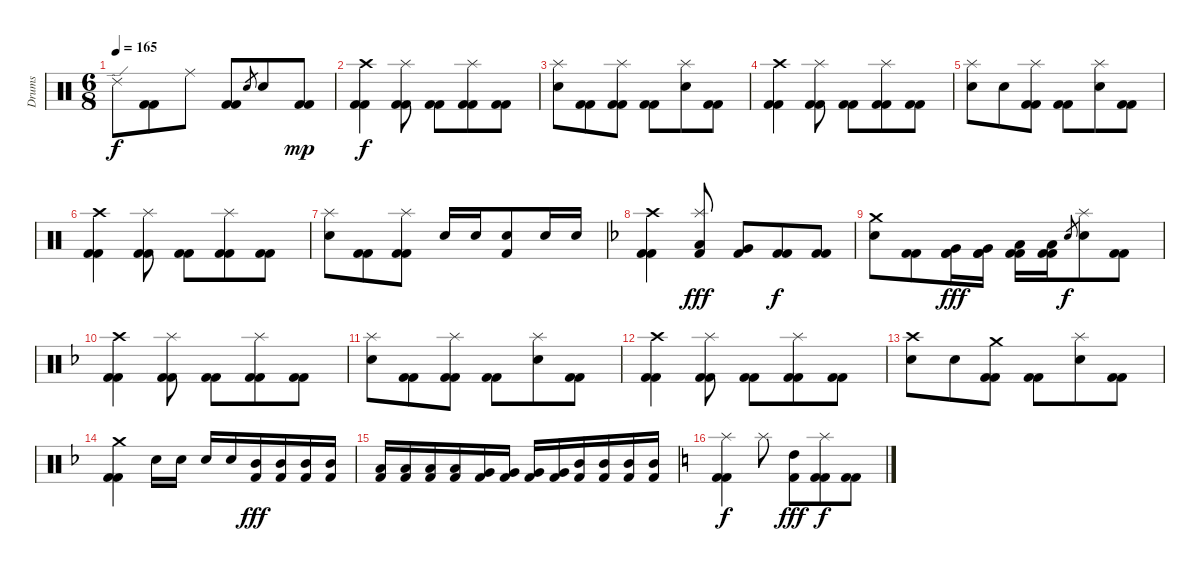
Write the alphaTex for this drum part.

\track ("Drums" "Drums") {instrument percussion}
\staff {score}
\articulation defaults
\ts (6 8)
\tempo 165
\clef neutral
\ks c "Ride (edge) 2".8{dy f}
("Kick (hit) 2" "Kick (hit) 2").8 "Ride (middle)".8 ("Kick (hit) 2" "Kick (hit) 2").8 "Electric Snare (hit)".8{gr} "Electric Snare (hit)".8 ("Kick (hit) 2" "Kick (hit) 2").8{dy mp} |
("Crash high (hit)" "Kick (hit) 2" "Kick (hit) 2").4{dy f} ("Splash (hit)" "Kick (hit) 2" "Kick (hit) 2").8 ("Kick (hit) 2" "Kick (hit) 2").8 ("Splash (hit)" "Kick (hit) 2" "Kick (hit) 2").8 ("Kick (hit) 2" "Kick (hit) 2").8 |
("Splash (hit)" "Electric Snare (hit)").8 ("Kick (hit) 2" "Kick (hit) 2").8 ("Splash (hit)" "Kick (hit) 2" "Kick (hit) 2").8 ("Kick (hit) 2" "Kick (hit) 2").8 ("Splash (hit)" "Electric Snare (hit)").8 ("Kick (hit) 2" "Kick (hit) 2").8 |
("Crash high (hit)" "Kick (hit) 2" "Kick (hit) 2").4 ("Splash (hit)" "Kick (hit) 2" "Kick (hit) 2").8 ("Kick (hit) 2" "Kick (hit) 2").8 ("Splash (hit)" "Kick (hit) 2" "Kick (hit) 2").8 ("Kick (hit) 2" "Kick (hit) 2").8 |
("Splash (hit)" "Electric Snare (hit)").8 "Electric Snare (hit)".8 ("Splash (hit)" "Kick (hit) 2" "Kick (hit) 2").8 ("Kick (hit) 2" "Kick (hit) 2").8 ("Splash (hit)" "Electric Snare (hit)").8 ("Kick (hit) 2" "Kick (hit) 2").8 |
("Crash high (hit)" "Kick (hit) 2" "Kick (hit) 2").4 ("Splash (hit)" "Kick (hit) 2" "Kick (hit) 2").8 ("Kick (hit) 2" "Kick (hit) 2").8 ("Splash (hit)" "Kick (hit) 2" "Kick (hit) 2").8 ("Kick (hit) 2" "Kick (hit) 2").8 |
("Splash (hit)" "Electric Snare (hit)").8 ("Kick (hit) 2" "Kick (hit) 2").8 ("Splash (hit)" "Kick (hit) 2" "Kick (hit) 2").8 "Electric Snare (hit)".16 "Electric Snare (hit)".16 ("Electric Snare (hit)" "Kick (hit) 2").8 "Electric Snare (hit)".16 "Electric Snare (hit)".16 |
\ks dminor
("Crash high (hit)" "Kick (hit) 2" "Kick (hit) 2").4 ("Splash (hit)" "Low Tom (hit)" "Kick (hit) 2").8{dy fff} ("Very Low Tom (hit)" "Kick (hit) 2").8 ("Kick (hit) 2" "Kick (hit) 2").8{dy f} ("Kick (hit) 2" "Kick (hit) 2").8 |
("Crash medium (hit)" "Electric Snare (hit)").8 ("Kick (hit) 2" "Kick (hit) 2").8 ("Very Low Tom (hit)" "Kick (hit) 2" "Kick (hit) 2").16{dy fff} ("Very Low Tom (hit)" "Kick (hit) 2" "Kick (hit) 2").16 ("Low Floor Tom (hit)" "Kick (hit) 2" "Kick (hit) 2").16 ("Low Floor Tom (hit)" "Kick (hit) 2" "Kick (hit) 2").16 "Electric Snare (hit)".8{gr dy f} ("Splash (hit)" "Electric Snare (hit)").8 ("Kick (hit) 2" "Kick (hit) 2").8 |
("Crash high (hit)" "Kick (hit) 2" "Kick (hit) 2").4 ("Splash (hit)" "Kick (hit) 2" "Kick (hit) 2").8 ("Kick (hit) 2" "Kick (hit) 2").8 ("Splash (hit)" "Kick (hit) 2" "Kick (hit) 2").8 ("Kick (hit) 2" "Kick (hit) 2").8 |
("Splash (hit)" "Electric Snare (hit)").8 ("Kick (hit) 2" "Kick (hit) 2").8 ("Splash (hit)" "Kick (hit) 2" "Kick (hit) 2").8 ("Kick (hit) 2" "Kick (hit) 2").8 ("Splash (hit)" "Electric Snare (hit)").8 ("Kick (hit) 2" "Kick (hit) 2").8 |
("Crash high (hit)" "Kick (hit) 2" "Kick (hit) 2").4 ("Splash (hit)" "Kick (hit) 2" "Kick (hit) 2").8 ("Kick (hit) 2" "Kick (hit) 2").8 ("Splash (hit)" "Kick (hit) 2" "Kick (hit) 2").8 ("Kick (hit) 2" "Kick (hit) 2").8 |
("Crash high (hit)" "Electric Snare (hit)").8 "Electric Snare (hit)".8 ("Crash medium (hit)" "Kick (hit) 2" "Kick (hit) 2").8 ("Kick (hit) 2" "Kick (hit) 2").8 ("Splash (hit)" "Electric Snare (hit)").8 ("Kick (hit) 2" "Kick (hit) 2").8 |
("Crash medium (hit)" "Kick (hit) 2" "Kick (hit) 2").4 "Electric Snare (hit)".16 "Electric Snare (hit)".16 "Electric Snare (hit)".16 "Electric Snare (hit)".16 ("Mid Tom (hit)" "Kick (hit) 2").16{dy fff} ("Mid Tom (hit)" "Kick (hit) 2").16 ("Mid Tom (hit)" "Kick (hit) 2").16 ("Mid Tom (hit)" "Kick (hit) 2").16 |
("Low Tom (hit)" "Kick (hit) 2").16 ("Low Tom (hit)" "Kick (hit) 2").16 ("Low Tom (hit)" "Kick (hit) 2").16 ("Low Tom (hit)" "Kick (hit) 2").16 ("Very Low Tom (hit)" "Kick (hit) 2").16 ("Very Low Tom (hit)" "Kick (hit) 2").16 ("Very Low Tom (hit)" "Kick (hit) 2").16 ("Very Low Tom (hit)" "Kick (hit) 2").16 ("Mid Tom (hit)" "Kick (hit) 2").16 ("Mid Tom (hit)" "Kick (hit) 2").16 ("Mid Tom (hit)" "Kick (hit) 2").16 ("Mid Tom (hit)" "Kick (hit) 2").16 |
\ks c
("Splash (hit)" "Kick (hit) 2" "Kick (hit) 2").4{dy f} "Splash (hit)".8 ("High Tom (hit)" "Kick (hit) 2").8{dy fff} ("Splash (hit)" "Kick (hit) 2" "Kick (hit) 2").8{dy f} ("Kick (hit) 2" "Kick (hit) 2").8
